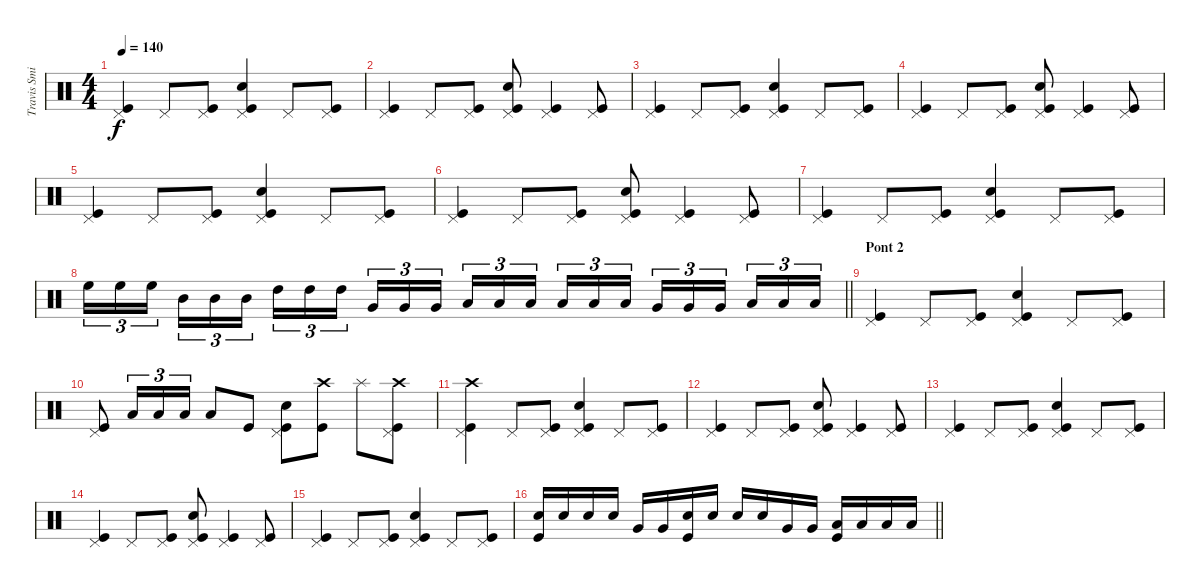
\track ("Travis Smith" "Travis Smi") {instrument percussion}
\staff {score}
\articulation defaults
\ts (4 4)
\tempo 140
\clef neutral
\ks c
("Pedal Hi-Hat (hit)" "Kick (hit)").4{dy f} "Pedal Hi-Hat (hit)".8 ("Pedal Hi-Hat (hit)" "Kick (hit)").8 ("Pedal Hi-Hat (hit)" "Snare (hit) 2" "Kick (hit)").4 "Pedal Hi-Hat (hit)".8 ("Pedal Hi-Hat (hit)" "Kick (hit)").8 |
("Pedal Hi-Hat (hit)" "Kick (hit)").4 "Pedal Hi-Hat (hit)".8 ("Pedal Hi-Hat (hit)" "Kick (hit)").8 ("Pedal Hi-Hat (hit)" "Snare (hit) 2" "Kick (hit)").8 ("Pedal Hi-Hat (hit)" "Kick (hit)").4 ("Pedal Hi-Hat (hit)" "Kick (hit)").8 |
("Pedal Hi-Hat (hit)" "Kick (hit)").4 "Pedal Hi-Hat (hit)".8 ("Pedal Hi-Hat (hit)" "Kick (hit)").8 ("Pedal Hi-Hat (hit)" "Snare (hit) 2" "Kick (hit)").4 "Pedal Hi-Hat (hit)".8 ("Pedal Hi-Hat (hit)" "Kick (hit)").8 |
("Pedal Hi-Hat (hit)" "Kick (hit)").4 "Pedal Hi-Hat (hit)".8 ("Pedal Hi-Hat (hit)" "Kick (hit)").8 ("Pedal Hi-Hat (hit)" "Snare (hit) 2" "Kick (hit)").8 ("Pedal Hi-Hat (hit)" "Kick (hit)").4 ("Pedal Hi-Hat (hit)" "Kick (hit)").8 |
("Pedal Hi-Hat (hit)" "Kick (hit)").4 "Pedal Hi-Hat (hit)".8 ("Pedal Hi-Hat (hit)" "Kick (hit)").8 ("Pedal Hi-Hat (hit)" "Snare (hit) 2" "Kick (hit)").4 "Pedal Hi-Hat (hit)".8 ("Pedal Hi-Hat (hit)" "Kick (hit)").8 |
("Pedal Hi-Hat (hit)" "Kick (hit)").4 "Pedal Hi-Hat (hit)".8 ("Pedal Hi-Hat (hit)" "Kick (hit)").8 ("Pedal Hi-Hat (hit)" "Snare (hit) 2" "Kick (hit)").8 ("Pedal Hi-Hat (hit)" "Kick (hit)").4 ("Pedal Hi-Hat (hit)" "Kick (hit)").8 |
("Pedal Hi-Hat (hit)" "Kick (hit)").4 "Pedal Hi-Hat (hit)".8 ("Pedal Hi-Hat (hit)" "Kick (hit)").8 ("Pedal Hi-Hat (hit)" "Snare (hit) 2" "Kick (hit)").4 "Pedal Hi-Hat (hit)".8 ("Pedal Hi-Hat (hit)" "Kick (hit)").8 |
\barLineRight lightlight "High Floor Tom (hit)".16{tu (3 2)} "High Floor Tom (hit)".16{tu (3 2)} "High Floor Tom (hit)".16{tu (3 2) beam splitsecondary} "Mid Tom (hit)".16{tu (3 2)} "Mid Tom (hit)".16{tu (3 2)} "Mid Tom (hit)".16{tu (3 2)} "High Tom (hit)".16{tu (3 2)} "High Tom (hit)".16{tu (3 2)} "High Tom (hit)".16{tu (3 2) beam splitsecondary} "Very Low Tom (hit)".16{tu (3 2)} "Very Low Tom (hit)".16{tu (3 2)} "Very Low Tom (hit)".16{tu (3 2)} "Low Tom (hit)".16{tu (3 2)} "Low Tom (hit)".16{tu (3 2)} "Low Tom (hit)".16{tu (3 2) beam splitsecondary} "Low Floor Tom (hit)".16{tu (3 2)} "Low Floor Tom (hit)".16{tu (3 2)} "Low Floor Tom (hit)".16{tu (3 2)} "Very Low Tom (hit)".16{tu (3 2)} "Very Low Tom (hit)".16{tu (3 2)} "Very Low Tom (hit)".16{tu (3 2) beam splitsecondary} "Low Floor Tom (hit)".16{tu (3 2)} "Low Floor Tom (hit)".16{tu (3 2)} "Low Floor Tom (hit)".16{tu (3 2)}
|
\section ("" "Pont 2")
("Pedal Hi-Hat (hit)" "Kick (hit)").4 "Pedal Hi-Hat (hit)".8 ("Pedal Hi-Hat (hit)" "Kick (hit)").8 ("Pedal Hi-Hat (hit)" "Snare (hit) 2" "Kick (hit)").4 "Pedal Hi-Hat (hit)".8 ("Pedal Hi-Hat (hit)" "Kick (hit)").8 |
("Pedal Hi-Hat (hit)" "Kick (hit)").8 "Low Tom (hit)".16{tu (3 2)} "Low Tom (hit)".16{tu (3 2)} "Low Tom (hit)".16{tu (3 2)} "Low Tom (hit)".8 "Kick (hit)".8 ("Pedal Hi-Hat (hit)" "Snare (hit) 2" "Kick (hit)").8 ("Crash high (hit)" "Kick (hit)").8 "Splash (hit)".8 ("Crash high (hit)" "Pedal Hi-Hat (hit)" "Kick (hit)").8 |
("Crash high (hit)" "Pedal Hi-Hat (hit)" "Kick (hit)").4 "Pedal Hi-Hat (hit)".8 ("Pedal Hi-Hat (hit)" "Kick (hit)").8 ("Pedal Hi-Hat (hit)" "Snare (hit) 2" "Kick (hit)").4 "Pedal Hi-Hat (hit)".8 ("Pedal Hi-Hat (hit)" "Kick (hit)").8 |
("Pedal Hi-Hat (hit)" "Kick (hit)").4 "Pedal Hi-Hat (hit)".8 ("Pedal Hi-Hat (hit)" "Kick (hit)").8 ("Pedal Hi-Hat (hit)" "Snare (hit) 2" "Kick (hit)").8 ("Pedal Hi-Hat (hit)" "Kick (hit)").4 ("Pedal Hi-Hat (hit)" "Kick (hit)").8 |
("Pedal Hi-Hat (hit)" "Kick (hit)").4 "Pedal Hi-Hat (hit)".8 ("Pedal Hi-Hat (hit)" "Kick (hit)").8 ("Pedal Hi-Hat (hit)" "Snare (hit) 2" "Kick (hit)").4 "Pedal Hi-Hat (hit)".8 ("Pedal Hi-Hat (hit)" "Kick (hit)").8 |
("Pedal Hi-Hat (hit)" "Kick (hit)").4 "Pedal Hi-Hat (hit)".8 ("Pedal Hi-Hat (hit)" "Kick (hit)").8 ("Pedal Hi-Hat (hit)" "Snare (hit) 2" "Kick (hit)").8 ("Pedal Hi-Hat (hit)" "Kick (hit)").4 ("Pedal Hi-Hat (hit)" "Kick (hit)").8 |
("Pedal Hi-Hat (hit)" "Kick (hit)").4 "Pedal Hi-Hat (hit)".8 ("Pedal Hi-Hat (hit)" "Kick (hit)").8 ("Pedal Hi-Hat (hit)" "Snare (hit) 2" "Kick (hit)").4 "Pedal Hi-Hat (hit)".8 ("Pedal Hi-Hat (hit)" "Kick (hit)").8 |
\barLineRight lightlight
("Snare (hit) 2" "Kick (hit)").16 "Snare (hit) 2".16 "Snare (hit) 2".16 "Snare (hit) 2".16 "Very Low Tom (hit)".16 "Very Low Tom (hit)".16 ("Snare (hit) 2" "Kick (hit)").16 "Snare (hit) 2".16 "Snare (hit) 2".16 "Snare (hit) 2".16 "Very Low Tom (hit)".16 "Very Low Tom (hit)".16 ("Low Floor Tom (hit)" "Kick (hit)").16 "Low Floor Tom (hit)".16 "Low Floor Tom (hit)".16 "Low Floor Tom (hit)".16
